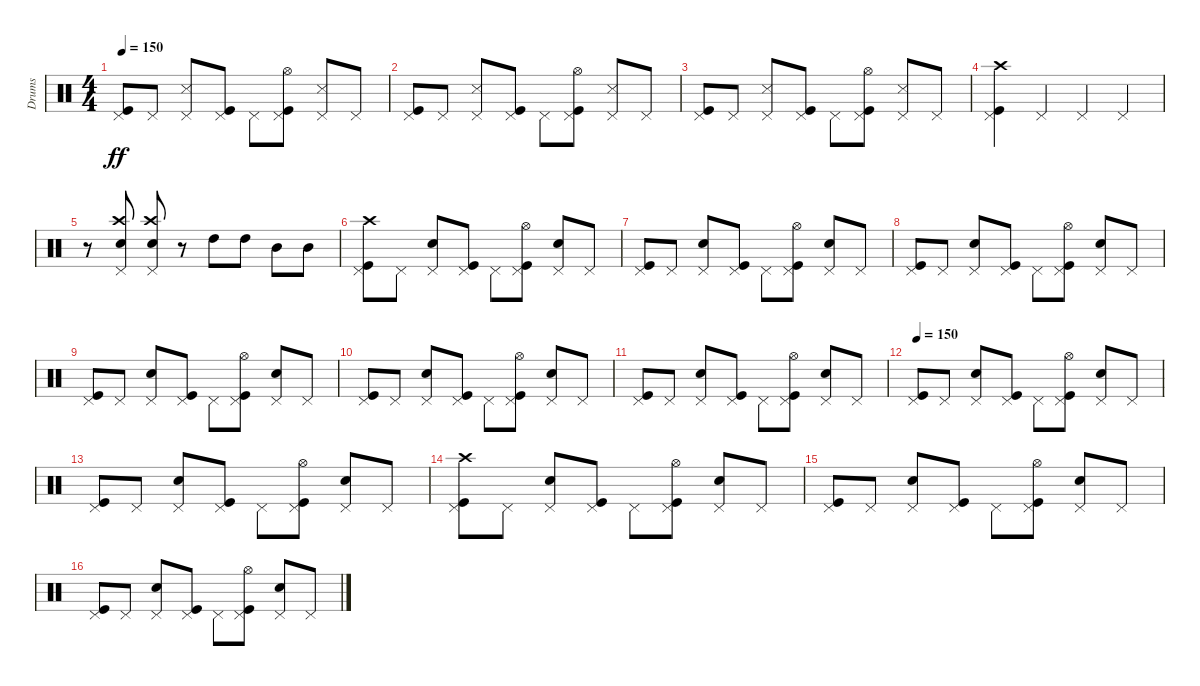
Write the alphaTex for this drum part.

\track ("Drums" "Drums") {instrument percussion}
\staff {score}
\articulation defaults
\ts (4 4)
\tempo 150
\clef neutral
\ks c
("Kick (hit)" "Pedal Hi-Hat (hit)").8{dy ff} "Pedal Hi-Hat (hit)".8 ("Pedal Hi-Hat (hit)" "Metronome (hit)").8 ("Kick (hit)" "Pedal Hi-Hat (hit)").8 "Pedal Hi-Hat (hit)".8 ("Kick (hit)" "Pedal Hi-Hat (hit)" "Hi-Hat (open)").8 ("Pedal Hi-Hat (hit)" "Metronome (hit)").8 "Pedal Hi-Hat (hit)".8 |
("Kick (hit)" "Pedal Hi-Hat (hit)").8 "Pedal Hi-Hat (hit)".8 ("Pedal Hi-Hat (hit)" "Metronome (hit)").8 ("Kick (hit)" "Pedal Hi-Hat (hit)").8 "Pedal Hi-Hat (hit)".8 ("Kick (hit)" "Pedal Hi-Hat (hit)" "Hi-Hat (open)").8 ("Pedal Hi-Hat (hit)" "Metronome (hit)").8 "Pedal Hi-Hat (hit)".8 |
("Kick (hit)" "Pedal Hi-Hat (hit)").8 "Pedal Hi-Hat (hit)".8 ("Pedal Hi-Hat (hit)" "Metronome (hit)").8 ("Kick (hit)" "Pedal Hi-Hat (hit)").8 "Pedal Hi-Hat (hit)".8 ("Kick (hit)" "Pedal Hi-Hat (hit)" "Hi-Hat (open)").8 ("Pedal Hi-Hat (hit)" "Metronome (hit)").8 "Pedal Hi-Hat (hit)".8 |
("Kick (hit)" "Pedal Hi-Hat (hit)" "Crash high (hit)").4 "Pedal Hi-Hat (hit)".4 "Pedal Hi-Hat (hit)".4 "Pedal Hi-Hat (hit)".4 |
r.8 ("Pedal Hi-Hat (hit)" "Snare (hit) 2" "Crash high (hit)").8 ("Pedal Hi-Hat (hit)" "Snare (hit) 2" "Crash high (hit)").8 r.8 "High Tom (hit)".8 "High Tom (hit)".8 "Mid Tom (hit)".8 "Mid Tom (hit)".8 |
("Kick (hit)" "Pedal Hi-Hat (hit)" "Crash high (hit)").8 "Pedal Hi-Hat (hit)".8 ("Pedal Hi-Hat (hit)" "Snare (hit) 2").8 ("Kick (hit)" "Pedal Hi-Hat (hit)").8 "Pedal Hi-Hat (hit)".8 ("Kick (hit)" "Pedal Hi-Hat (hit)" "Hi-Hat (open)").8 ("Pedal Hi-Hat (hit)" "Snare (hit) 2").8 "Pedal Hi-Hat (hit)".8 |
("Kick (hit)" "Pedal Hi-Hat (hit)").8 "Pedal Hi-Hat (hit)".8 ("Pedal Hi-Hat (hit)" "Snare (hit) 2").8 ("Kick (hit)" "Pedal Hi-Hat (hit)").8 "Pedal Hi-Hat (hit)".8 ("Kick (hit)" "Pedal Hi-Hat (hit)" "Hi-Hat (open)").8 ("Pedal Hi-Hat (hit)" "Snare (hit) 2").8 "Pedal Hi-Hat (hit)".8 |
("Kick (hit)" "Pedal Hi-Hat (hit)").8 "Pedal Hi-Hat (hit)".8 ("Pedal Hi-Hat (hit)" "Snare (hit) 2").8 ("Kick (hit)" "Pedal Hi-Hat (hit)").8 "Pedal Hi-Hat (hit)".8 ("Kick (hit)" "Pedal Hi-Hat (hit)" "Hi-Hat (open)").8 ("Pedal Hi-Hat (hit)" "Snare (hit) 2").8 "Pedal Hi-Hat (hit)".8 |
("Kick (hit)" "Pedal Hi-Hat (hit)").8 "Pedal Hi-Hat (hit)".8 ("Pedal Hi-Hat (hit)" "Snare (hit) 2").8 ("Kick (hit)" "Pedal Hi-Hat (hit)").8 "Pedal Hi-Hat (hit)".8 ("Kick (hit)" "Pedal Hi-Hat (hit)" "Hi-Hat (open)").8 ("Pedal Hi-Hat (hit)" "Snare (hit) 2").8 "Pedal Hi-Hat (hit)".8 |
("Kick (hit)" "Pedal Hi-Hat (hit)").8 "Pedal Hi-Hat (hit)".8 ("Pedal Hi-Hat (hit)" "Snare (hit) 2").8 ("Kick (hit)" "Pedal Hi-Hat (hit)").8 "Pedal Hi-Hat (hit)".8 ("Kick (hit)" "Pedal Hi-Hat (hit)" "Hi-Hat (open)").8 ("Pedal Hi-Hat (hit)" "Snare (hit) 2").8 "Pedal Hi-Hat (hit)".8 |
("Kick (hit)" "Pedal Hi-Hat (hit)").8 "Pedal Hi-Hat (hit)".8 ("Pedal Hi-Hat (hit)" "Snare (hit) 2").8 ("Kick (hit)" "Pedal Hi-Hat (hit)").8 "Pedal Hi-Hat (hit)".8 ("Kick (hit)" "Pedal Hi-Hat (hit)" "Hi-Hat (open)").8 ("Pedal Hi-Hat (hit)" "Snare (hit) 2").8 "Pedal Hi-Hat (hit)".8 |
\tempo 150
("Kick (hit)" "Pedal Hi-Hat (hit)").8 "Pedal Hi-Hat (hit)".8 ("Pedal Hi-Hat (hit)" "Snare (hit) 2").8 ("Kick (hit)" "Pedal Hi-Hat (hit)").8 "Pedal Hi-Hat (hit)".8 ("Kick (hit)" "Pedal Hi-Hat (hit)" "Hi-Hat (open)").8 ("Pedal Hi-Hat (hit)" "Snare (hit) 2").8 "Pedal Hi-Hat (hit)".8 |
("Kick (hit)" "Pedal Hi-Hat (hit)").8 "Pedal Hi-Hat (hit)".8 ("Pedal Hi-Hat (hit)" "Snare (hit) 2").8 ("Kick (hit)" "Pedal Hi-Hat (hit)").8 "Pedal Hi-Hat (hit)".8 ("Kick (hit)" "Pedal Hi-Hat (hit)" "Hi-Hat (open)").8 ("Pedal Hi-Hat (hit)" "Snare (hit) 2").8 "Pedal Hi-Hat (hit)".8 |
("Kick (hit)" "Pedal Hi-Hat (hit)" "Crash high (hit)").8 "Pedal Hi-Hat (hit)".8 ("Pedal Hi-Hat (hit)" "Snare (hit) 2").8 ("Kick (hit)" "Pedal Hi-Hat (hit)").8 "Pedal Hi-Hat (hit)".8 ("Kick (hit)" "Pedal Hi-Hat (hit)" "Hi-Hat (open)").8 ("Pedal Hi-Hat (hit)" "Snare (hit) 2").8 "Pedal Hi-Hat (hit)".8 |
("Kick (hit)" "Pedal Hi-Hat (hit)").8 "Pedal Hi-Hat (hit)".8 ("Pedal Hi-Hat (hit)" "Snare (hit) 2").8 ("Kick (hit)" "Pedal Hi-Hat (hit)").8 "Pedal Hi-Hat (hit)".8 ("Kick (hit)" "Pedal Hi-Hat (hit)" "Hi-Hat (open)").8 ("Pedal Hi-Hat (hit)" "Snare (hit) 2").8 "Pedal Hi-Hat (hit)".8 |
("Kick (hit)" "Pedal Hi-Hat (hit)").8 "Pedal Hi-Hat (hit)".8 ("Pedal Hi-Hat (hit)" "Snare (hit) 2").8 ("Kick (hit)" "Pedal Hi-Hat (hit)").8 "Pedal Hi-Hat (hit)".8 ("Kick (hit)" "Pedal Hi-Hat (hit)" "Hi-Hat (open)").8 ("Pedal Hi-Hat (hit)" "Snare (hit) 2").8 "Pedal Hi-Hat (hit)".8
